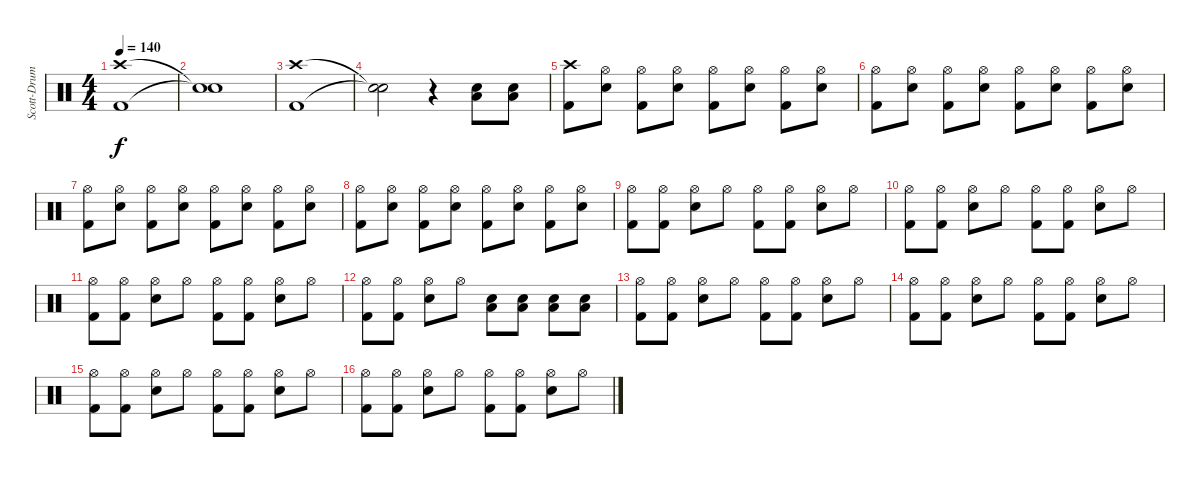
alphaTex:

\track ("Scott-Drums" "Scott-Drum") {instrument percussion}
\staff {score}
\articulation defaults
\ts (4 4)
\tempo 140
\clef neutral
\ks c
("Kick (hit) 2" "Crash high (hit)").1{dy f} |
("Snare (hit)"{t} "Snare (hit)"{t}).1 |
("Kick (hit) 2" "Crash high (hit)").1 |
("Snare (hit)"{t} "Snare (hit)"{t}).2 r.4 ("Snare (hit) 2" "Low Tom (hit)").8 ("Snare (hit) 2" "Low Tom (hit)").8 |
("Kick (hit) 2" "Crash high (hit)").8 ("Snare (hit) 2" "Hi-Hat (open)").8 ("Kick (hit) 2" "Hi-Hat (open)").8 ("Snare (hit) 2" "Hi-Hat (open)").8 ("Kick (hit) 2" "Hi-Hat (open)").8 ("Snare (hit) 2" "Hi-Hat (open)").8 ("Kick (hit) 2" "Hi-Hat (open)").8 ("Snare (hit) 2" "Hi-Hat (open)").8 |
("Kick (hit) 2" "Hi-Hat (open)").8 ("Snare (hit) 2" "Hi-Hat (open)").8 ("Kick (hit) 2" "Hi-Hat (open)").8 ("Snare (hit) 2" "Hi-Hat (open)").8 ("Kick (hit) 2" "Hi-Hat (open)").8 ("Snare (hit) 2" "Hi-Hat (open)").8 ("Kick (hit) 2" "Hi-Hat (open)").8 ("Snare (hit) 2" "Hi-Hat (open)").8 |
("Kick (hit) 2" "Hi-Hat (open)").8 ("Snare (hit) 2" "Hi-Hat (open)").8 ("Kick (hit) 2" "Hi-Hat (open)").8 ("Snare (hit) 2" "Hi-Hat (open)").8 ("Kick (hit) 2" "Hi-Hat (open)").8 ("Snare (hit) 2" "Hi-Hat (open)").8 ("Kick (hit) 2" "Hi-Hat (open)").8 ("Snare (hit) 2" "Hi-Hat (open)").8 |
("Kick (hit) 2" "Hi-Hat (open)").8 ("Snare (hit) 2" "Hi-Hat (open)").8 ("Kick (hit) 2" "Hi-Hat (open)").8 ("Snare (hit) 2" "Hi-Hat (open)").8 ("Kick (hit) 2" "Hi-Hat (open)").8 ("Snare (hit) 2" "Hi-Hat (open)").8 ("Kick (hit) 2" "Hi-Hat (open)").8 ("Snare (hit) 2" "Hi-Hat (open)").8 |
("Kick (hit) 2" "Hi-Hat (open)").8 ("Kick (hit) 2" "Hi-Hat (open)").8 ("Snare (hit) 2" "Hi-Hat (open)").8 "Hi-Hat (open)".8 ("Kick (hit) 2" "Hi-Hat (open)").8 ("Kick (hit) 2" "Hi-Hat (open)").8 ("Snare (hit) 2" "Hi-Hat (open)").8 "Hi-Hat (open)".8 |
("Kick (hit) 2" "Hi-Hat (open)").8 ("Kick (hit) 2" "Hi-Hat (open)").8 ("Snare (hit) 2" "Hi-Hat (open)").8 "Hi-Hat (open)".8 ("Kick (hit) 2" "Hi-Hat (open)").8 ("Kick (hit) 2" "Hi-Hat (open)").8 ("Snare (hit) 2" "Hi-Hat (open)").8 "Hi-Hat (open)".8 |
("Kick (hit) 2" "Hi-Hat (open)").8 ("Kick (hit) 2" "Hi-Hat (open)").8 ("Snare (hit) 2" "Hi-Hat (open)").8 "Hi-Hat (open)".8 ("Kick (hit) 2" "Hi-Hat (open)").8 ("Kick (hit) 2" "Hi-Hat (open)").8 ("Snare (hit) 2" "Hi-Hat (open)").8 "Hi-Hat (open)".8 |
("Kick (hit) 2" "Hi-Hat (open)").8 ("Kick (hit) 2" "Hi-Hat (open)").8 ("Snare (hit) 2" "Hi-Hat (open)").8 "Hi-Hat (open)".8 ("Snare (hit) 2" "Low Tom (hit)").8 ("Snare (hit) 2" "Low Tom (hit)").8 ("Snare (hit) 2" "Low Tom (hit)").8 ("Snare (hit) 2" "Low Tom (hit)").8 |
("Kick (hit) 2" "Hi-Hat (open)").8 ("Kick (hit) 2" "Hi-Hat (open)").8 ("Snare (hit) 2" "Hi-Hat (open)").8 "Hi-Hat (open)".8 ("Kick (hit) 2" "Hi-Hat (open)").8 ("Kick (hit) 2" "Hi-Hat (open)").8 ("Snare (hit) 2" "Hi-Hat (open)").8 "Hi-Hat (open)".8 |
("Kick (hit) 2" "Hi-Hat (open)").8 ("Kick (hit) 2" "Hi-Hat (open)").8 ("Snare (hit) 2" "Hi-Hat (open)").8 "Hi-Hat (open)".8 ("Kick (hit) 2" "Hi-Hat (open)").8 ("Kick (hit) 2" "Hi-Hat (open)").8 ("Snare (hit) 2" "Hi-Hat (open)").8 "Hi-Hat (open)".8 |
("Kick (hit) 2" "Hi-Hat (open)").8 ("Kick (hit) 2" "Hi-Hat (open)").8 ("Snare (hit) 2" "Hi-Hat (open)").8 "Hi-Hat (open)".8 ("Kick (hit) 2" "Hi-Hat (open)").8 ("Kick (hit) 2" "Hi-Hat (open)").8 ("Snare (hit) 2" "Hi-Hat (open)").8 "Hi-Hat (open)".8 |
("Kick (hit) 2" "Hi-Hat (open)").8 ("Kick (hit) 2" "Hi-Hat (open)").8 ("Snare (hit) 2" "Hi-Hat (open)").8 "Hi-Hat (open)".8 ("Kick (hit) 2" "Hi-Hat (open)").8 ("Kick (hit) 2" "Hi-Hat (open)").8 ("Snare (hit) 2" "Hi-Hat (open)").8 "Hi-Hat (open)".8
